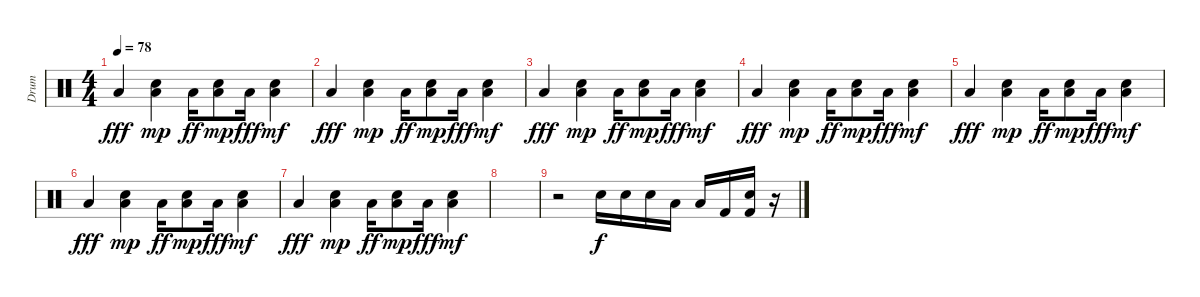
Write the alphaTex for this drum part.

\track ("Drum" "Drum") {instrument percussion}
\staff {score}
\articulation defaults
\ts (4 4)
\tempo 78
\clef neutral
\ks c "Low Floor Tom (hit)".4{dy fff}
("Electric Snare (hit)" "Low Floor Tom (hit)").4{dy mp} "Low Floor Tom (hit)".16{dy ff} ("Electric Snare (hit)" "Low Floor Tom (hit)").8{dy mp} "Low Floor Tom (hit)".16{dy fff} ("Electric Snare (hit)" "Low Floor Tom (hit)").4{dy mf} |
"Low Floor Tom (hit)".4{dy fff} ("Electric Snare (hit)" "Low Floor Tom (hit)").4{dy mp} "Low Floor Tom (hit)".16{dy ff} ("Electric Snare (hit)" "Low Floor Tom (hit)").8{dy mp} "Low Floor Tom (hit)".16{dy fff} ("Electric Snare (hit)" "Low Floor Tom (hit)").4{dy mf} |
"Low Floor Tom (hit)".4{dy fff} ("Electric Snare (hit)" "Low Floor Tom (hit)").4{dy mp} "Low Floor Tom (hit)".16{dy ff} ("Electric Snare (hit)" "Low Floor Tom (hit)").8{dy mp} "Low Floor Tom (hit)".16{dy fff} ("Electric Snare (hit)" "Low Floor Tom (hit)").4{dy mf} |
"Low Floor Tom (hit)".4{dy fff} ("Electric Snare (hit)" "Low Floor Tom (hit)").4{dy mp} "Low Floor Tom (hit)".16{dy ff} ("Electric Snare (hit)" "Low Floor Tom (hit)").8{dy mp} "Low Floor Tom (hit)".16{dy fff} ("Electric Snare (hit)" "Low Floor Tom (hit)").4{dy mf} |
"Low Floor Tom (hit)".4{dy fff} ("Electric Snare (hit)" "Low Floor Tom (hit)").4{dy mp} "Low Floor Tom (hit)".16{dy ff} ("Electric Snare (hit)" "Low Floor Tom (hit)").8{dy mp} "Low Floor Tom (hit)".16{dy fff} ("Electric Snare (hit)" "Low Floor Tom (hit)").4{dy mf} |
"Low Floor Tom (hit)".4{dy fff} ("Electric Snare (hit)" "Low Floor Tom (hit)").4{dy mp} "Low Floor Tom (hit)".16{dy ff} ("Electric Snare (hit)" "Low Floor Tom (hit)").8{dy mp} "Low Floor Tom (hit)".16{dy fff} ("Electric Snare (hit)" "Low Floor Tom (hit)").4{dy mf} |
"Low Floor Tom (hit)".4{dy fff} ("Electric Snare (hit)" "Low Floor Tom (hit)").4{dy mp} "Low Floor Tom (hit)".16{dy ff} ("Electric Snare (hit)" "Low Floor Tom (hit)").8{dy mp} "Low Floor Tom (hit)".16{dy fff} ("Electric Snare (hit)" "Low Floor Tom (hit)").4{dy mf} |
|
r.2 "Electric Snare (hit)".16{dy f} "Electric Snare (hit)".16 "Electric Snare (hit)".16 "Low Floor Tom (hit)".16 "Low Floor Tom (hit)".16 "Kick (hit) 2".16 ("Electric Snare (hit)" "Kick (hit) 2").16 r.16
